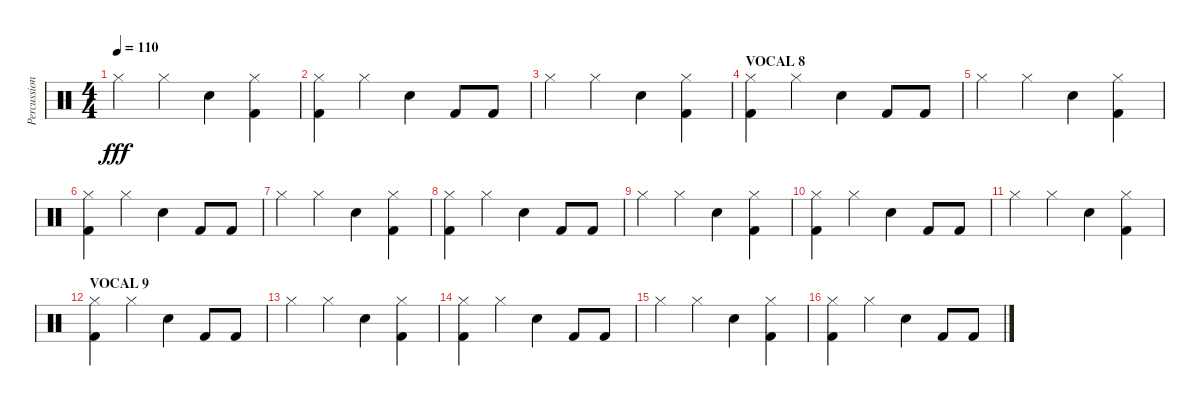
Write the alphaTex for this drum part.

\track ("Percussion" "Percussion") {instrument percussion}
\staff {score}
\articulation defaults
\ts (4 4)
\tempo 110
\clef neutral
\ks c "Hi-Hat (closed)".4{dy fff} "Hi-Hat (closed)".4 "Electric Snare (hit)".4
("Kick (hit) 2" "Hi-Hat (closed)").4 |
("Kick (hit) 2" "Hi-Hat (closed)").4 "Hi-Hat (closed)".4 "Electric Snare (hit)".4 "Kick (hit) 2".8 "Kick (hit) 2".8 |
"Hi-Hat (closed)".4 "Hi-Hat (closed)".4 "Electric Snare (hit)".4 ("Kick (hit) 2" "Hi-Hat (closed)").4 |
\section ("" "VOCAL 8")
("Kick (hit) 2" "Hi-Hat (closed)").4 "Hi-Hat (closed)".4 "Electric Snare (hit)".4 "Kick (hit) 2".8 "Kick (hit) 2".8 |
"Hi-Hat (closed)".4 "Hi-Hat (closed)".4 "Electric Snare (hit)".4 ("Kick (hit) 2" "Hi-Hat (closed)").4 |
("Kick (hit) 2" "Hi-Hat (closed)").4 "Hi-Hat (closed)".4 "Electric Snare (hit)".4 "Kick (hit) 2".8 "Kick (hit) 2".8 |
"Hi-Hat (closed)".4 "Hi-Hat (closed)".4 "Electric Snare (hit)".4 ("Kick (hit) 2" "Hi-Hat (closed)").4 |
("Kick (hit) 2" "Hi-Hat (closed)").4 "Hi-Hat (closed)".4 "Electric Snare (hit)".4 "Kick (hit) 2".8 "Kick (hit) 2".8 |
"Hi-Hat (closed)".4 "Hi-Hat (closed)".4 "Electric Snare (hit)".4 ("Kick (hit) 2" "Hi-Hat (closed)").4 |
("Kick (hit) 2" "Hi-Hat (closed)").4 "Hi-Hat (closed)".4 "Electric Snare (hit)".4 "Kick (hit) 2".8 "Kick (hit) 2".8 |
"Hi-Hat (closed)".4 "Hi-Hat (closed)".4 "Electric Snare (hit)".4 ("Kick (hit) 2" "Hi-Hat (closed)").4 |
\section ("" "VOCAL 9")
("Kick (hit) 2" "Hi-Hat (closed)").4 "Hi-Hat (closed)".4 "Electric Snare (hit)".4 "Kick (hit) 2".8 "Kick (hit) 2".8 |
"Hi-Hat (closed)".4 "Hi-Hat (closed)".4 "Electric Snare (hit)".4 ("Kick (hit) 2" "Hi-Hat (closed)").4 |
("Kick (hit) 2" "Hi-Hat (closed)").4 "Hi-Hat (closed)".4 "Electric Snare (hit)".4 "Kick (hit) 2".8 "Kick (hit) 2".8 |
"Hi-Hat (closed)".4 "Hi-Hat (closed)".4 "Electric Snare (hit)".4 ("Kick (hit) 2" "Hi-Hat (closed)").4 |
("Kick (hit) 2" "Hi-Hat (closed)").4 "Hi-Hat (closed)".4 "Electric Snare (hit)".4 "Kick (hit) 2".8 "Kick (hit) 2".8
